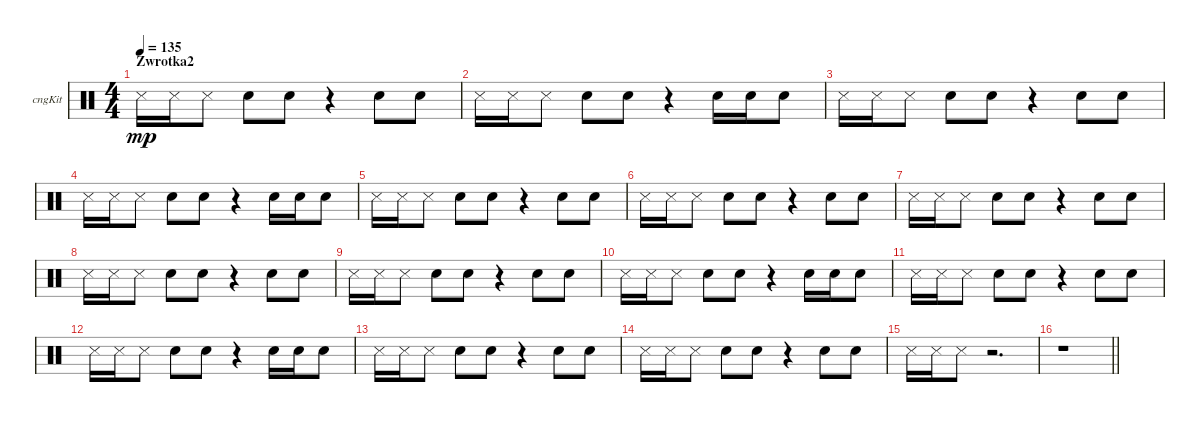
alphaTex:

\bracketExtendMode groupsimilarinstruments
\firstSystemTrackNameOrientation horizontal
\otherSystemsTrackNameOrientation horizontal
\track ("Congas" "cngKit") {instrument percussion}
\staff {score}
\articulation defaults
\ts (4 4)
\section ("" "Zwrotka2")
\tempo 135
\clef neutral
\ks c "Snare (side stick) 3".16{dy mp} "Snare (side stick) 3".16 "Snare (side stick) 3".8 "Snare (hit) 2".8 "Snare (hit) 2".8
r.4 "Snare (hit) 2".8 "Snare (hit) 2".8 |
"Snare (side stick) 3".16 "Snare (side stick) 3".16 "Snare (side stick) 3".8 "Snare (hit) 2".8 "Snare (hit) 2".8 r.4 "Snare (hit) 2".16 "Snare (hit) 2".16 "Snare (hit) 2".8 |
"Snare (side stick) 3".16 "Snare (side stick) 3".16 "Snare (side stick) 3".8 "Snare (hit) 2".8 "Snare (hit) 2".8 r.4 "Snare (hit) 2".8 "Snare (hit) 2".8 |
"Snare (side stick) 3".16 "Snare (side stick) 3".16 "Snare (side stick) 3".8 "Snare (hit) 2".8 "Snare (hit) 2".8 r.4 "Snare (hit) 2".16 "Snare (hit) 2".16 "Snare (hit) 2".8 |
"Snare (side stick) 3".16 "Snare (side stick) 3".16 "Snare (side stick) 3".8 "Snare (hit) 2".8 "Snare (hit) 2".8 r.4 "Snare (hit) 2".8 "Snare (hit) 2".8 |
"Snare (side stick) 3".16 "Snare (side stick) 3".16 "Snare (side stick) 3".8 "Snare (hit) 2".8 "Snare (hit) 2".8 r.4 "Snare (hit) 2".8 "Snare (hit) 2".8 |
"Snare (side stick) 3".16 "Snare (side stick) 3".16 "Snare (side stick) 3".8 "Snare (hit) 2".8 "Snare (hit) 2".8 r.4 "Snare (hit) 2".8 "Snare (hit) 2".8 |
"Snare (side stick) 3".16 "Snare (side stick) 3".16 "Snare (side stick) 3".8 "Snare (hit) 2".8 "Snare (hit) 2".8 r.4 "Snare (hit) 2".8 "Snare (hit) 2".8 |
"Snare (side stick) 3".16 "Snare (side stick) 3".16 "Snare (side stick) 3".8 "Snare (hit) 2".8 "Snare (hit) 2".8 r.4 "Snare (hit) 2".8 "Snare (hit) 2".8 |
"Snare (side stick) 3".16 "Snare (side stick) 3".16 "Snare (side stick) 3".8 "Snare (hit) 2".8 "Snare (hit) 2".8 r.4 "Snare (hit) 2".16 "Snare (hit) 2".16 "Snare (hit) 2".8 |
"Snare (side stick) 3".16 "Snare (side stick) 3".16 "Snare (side stick) 3".8 "Snare (hit) 2".8 "Snare (hit) 2".8 r.4 "Snare (hit) 2".8 "Snare (hit) 2".8 |
"Snare (side stick) 3".16 "Snare (side stick) 3".16 "Snare (side stick) 3".8 "Snare (hit) 2".8 "Snare (hit) 2".8 r.4 "Snare (hit) 2".16 "Snare (hit) 2".16 "Snare (hit) 2".8 |
"Snare (side stick) 3".16 "Snare (side stick) 3".16 "Snare (side stick) 3".8 "Snare (hit) 2".8 "Snare (hit) 2".8 r.4 "Snare (hit) 2".8 "Snare (hit) 2".8 |
"Snare (side stick) 3".16 "Snare (side stick) 3".16 "Snare (side stick) 3".8 "Snare (hit) 2".8 "Snare (hit) 2".8 r.4 "Snare (hit) 2".8 "Snare (hit) 2".8 |
"Snare (side stick) 3".16 "Snare (side stick) 3".16 "Snare (side stick) 3".8 r.2{d} |
\barLineRight lightlight
r.1
